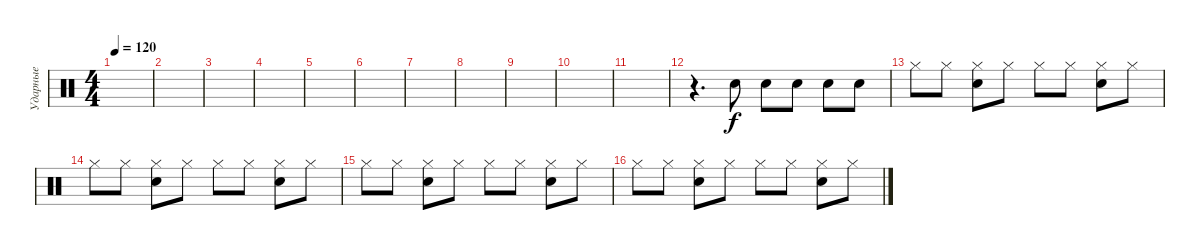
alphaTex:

\track ("Ударные" "Ударные") {instrument percussion}
\staff {score}
\articulation defaults
\ts (4 4)
\tempo 120
\clef neutral
\ks c
|
|
|
|
|
|
|
|
|
|
|
r.4{d} "Electric Snare (hit)".8 "Electric Snare (hit)".8 "Electric Snare (hit)".8 "Electric Snare (hit)".8 "Electric Snare (hit)".8 |
"Hi-Hat (closed)".8 "Hi-Hat (closed)".8 ("Hi-Hat (closed)" "Electric Snare (hit)").8 "Hi-Hat (closed)".8 "Hi-Hat (closed)".8 "Hi-Hat (closed)".8 ("Hi-Hat (closed)" "Electric Snare (hit)").8 "Hi-Hat (closed)".8 |
"Hi-Hat (closed)".8 "Hi-Hat (closed)".8 ("Hi-Hat (closed)" "Electric Snare (hit)").8 "Hi-Hat (closed)".8 "Hi-Hat (closed)".8 "Hi-Hat (closed)".8 ("Hi-Hat (closed)" "Electric Snare (hit)").8 "Hi-Hat (closed)".8 |
"Hi-Hat (closed)".8 "Hi-Hat (closed)".8 ("Hi-Hat (closed)" "Electric Snare (hit)").8 "Hi-Hat (closed)".8 "Hi-Hat (closed)".8 "Hi-Hat (closed)".8 ("Hi-Hat (closed)" "Electric Snare (hit)").8 "Hi-Hat (closed)".8 |
"Hi-Hat (closed)".8 "Hi-Hat (closed)".8 ("Hi-Hat (closed)" "Electric Snare (hit)").8 "Hi-Hat (closed)".8 "Hi-Hat (closed)".8 "Hi-Hat (closed)".8 ("Hi-Hat (closed)" "Electric Snare (hit)").8 "Hi-Hat (closed)".8
